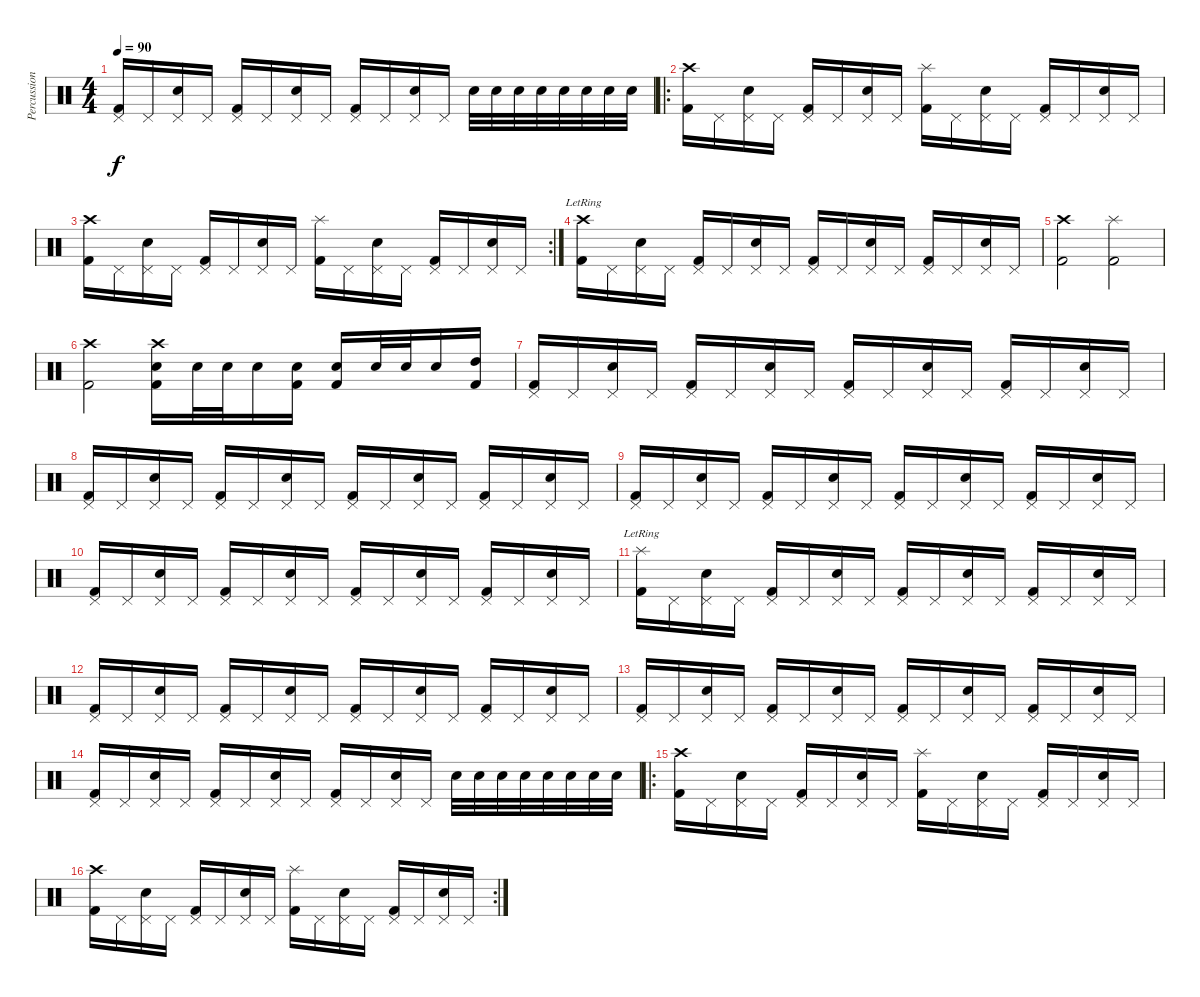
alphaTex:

\track ("Percussion" "Percussion") {instrument percussion}
\staff {score}
\articulation defaults
\ts (4 4)
\tempo 90
\clef neutral
\ks c
("Pedal Hi-Hat (hit)" "Kick (hit) 2").16{dy f} "Pedal Hi-Hat (hit)".16 ("Pedal Hi-Hat (hit)" "Snare (hit) 2").16 "Pedal Hi-Hat (hit)".16 ("Pedal Hi-Hat (hit)" "Kick (hit) 2").16 "Pedal Hi-Hat (hit)".16 ("Pedal Hi-Hat (hit)" "Snare (hit) 2").16 "Pedal Hi-Hat (hit)".16 ("Pedal Hi-Hat (hit)" "Kick (hit) 2").16 "Pedal Hi-Hat (hit)".16 ("Pedal Hi-Hat (hit)" "Snare (hit) 2").16 "Pedal Hi-Hat (hit)".16 "Snare (hit) 2".32 "Snare (hit) 2".32 "Snare (hit) 2".32 "Snare (hit) 2".32 "Snare (hit) 2".32 "Snare (hit) 2".32 "Snare (hit) 2".32 "Snare (hit) 2".32 |
\ro
("Crash high (hit)" "Kick (hit) 2").16 "Pedal Hi-Hat (hit)".16 ("Pedal Hi-Hat (hit)" "Snare (hit) 2").16 "Pedal Hi-Hat (hit)".16 ("Pedal Hi-Hat (hit)" "Kick (hit) 2").16 "Pedal Hi-Hat (hit)".16 ("Pedal Hi-Hat (hit)" "Snare (hit) 2").16 "Pedal Hi-Hat (hit)".16 ("Splash (hit)" "Kick (hit) 2").16 "Pedal Hi-Hat (hit)".16 ("Pedal Hi-Hat (hit)" "Snare (hit) 2").16 "Pedal Hi-Hat (hit)".16 ("Pedal Hi-Hat (hit)" "Kick (hit) 2").16 "Pedal Hi-Hat (hit)".16 ("Pedal Hi-Hat (hit)" "Snare (hit) 2").16 "Pedal Hi-Hat (hit)".16 |
\rc 2
("Crash high (hit)" "Kick (hit) 2").16 "Pedal Hi-Hat (hit)".16 ("Pedal Hi-Hat (hit)" "Snare (hit) 2").16 "Pedal Hi-Hat (hit)".16 ("Pedal Hi-Hat (hit)" "Kick (hit) 2").16 "Pedal Hi-Hat (hit)".16 ("Pedal Hi-Hat (hit)" "Snare (hit) 2").16 "Pedal Hi-Hat (hit)".16 ("Splash (hit)" "Kick (hit) 2").16 "Pedal Hi-Hat (hit)".16 ("Pedal Hi-Hat (hit)" "Snare (hit) 2").16 "Pedal Hi-Hat (hit)".16 ("Pedal Hi-Hat (hit)" "Kick (hit) 2").16 "Pedal Hi-Hat (hit)".16 ("Pedal Hi-Hat (hit)" "Snare (hit) 2").16 "Pedal Hi-Hat (hit)".16 |
("Crash high (hit)"{lr} "Kick (hit) 2").16 "Pedal Hi-Hat (hit)".16 ("Pedal Hi-Hat (hit)" "Snare (hit) 2").16 "Pedal Hi-Hat (hit)".16 ("Pedal Hi-Hat (hit)" "Kick (hit) 2").16 "Pedal Hi-Hat (hit)".16 ("Pedal Hi-Hat (hit)" "Snare (hit) 2").16 "Pedal Hi-Hat (hit)".16 ("Pedal Hi-Hat (hit)" "Kick (hit) 2").16 "Pedal Hi-Hat (hit)".16 ("Pedal Hi-Hat (hit)" "Snare (hit) 2").16 "Pedal Hi-Hat (hit)".16 ("Pedal Hi-Hat (hit)" "Kick (hit) 2").16 "Pedal Hi-Hat (hit)".16 ("Pedal Hi-Hat (hit)" "Snare (hit) 2").16 "Pedal Hi-Hat (hit)".16 |
("Crash high (hit)" "Kick (hit) 2").2 ("Splash (hit)" "Kick (hit) 2").2 |
("Crash high (hit)" "Kick (hit) 2").2 ("Crash high (hit)" "Snare (hit) 2" "Kick (hit) 2").16 "Snare (hit) 2".32 "Snare (hit) 2".32 "Snare (hit) 2".16 ("Snare (hit) 2" "Kick (hit) 2").16 ("Snare (hit) 2" "Kick (hit) 2").16 "Snare (hit) 2".32 "Snare (hit) 2".32 "Snare (hit) 2".16 ("High Tom (hit)" "Kick (hit) 2").16 |
("Pedal Hi-Hat (hit)" "Kick (hit) 2").16 "Pedal Hi-Hat (hit)".16 ("Pedal Hi-Hat (hit)" "Snare (hit) 2").16 "Pedal Hi-Hat (hit)".16 ("Pedal Hi-Hat (hit)" "Kick (hit) 2").16 "Pedal Hi-Hat (hit)".16 ("Pedal Hi-Hat (hit)" "Snare (hit) 2").16 "Pedal Hi-Hat (hit)".16 ("Pedal Hi-Hat (hit)" "Kick (hit) 2").16 "Pedal Hi-Hat (hit)".16 ("Pedal Hi-Hat (hit)" "Snare (hit) 2").16 "Pedal Hi-Hat (hit)".16 ("Pedal Hi-Hat (hit)" "Kick (hit) 2").16 "Pedal Hi-Hat (hit)".16 ("Pedal Hi-Hat (hit)" "Snare (hit) 2").16 "Pedal Hi-Hat (hit)".16 |
("Pedal Hi-Hat (hit)" "Kick (hit) 2").16 "Pedal Hi-Hat (hit)".16 ("Pedal Hi-Hat (hit)" "Snare (hit) 2").16 "Pedal Hi-Hat (hit)".16 ("Pedal Hi-Hat (hit)" "Kick (hit) 2").16 "Pedal Hi-Hat (hit)".16 ("Pedal Hi-Hat (hit)" "Snare (hit) 2").16 "Pedal Hi-Hat (hit)".16 ("Pedal Hi-Hat (hit)" "Kick (hit) 2").16 "Pedal Hi-Hat (hit)".16 ("Pedal Hi-Hat (hit)" "Snare (hit) 2").16 "Pedal Hi-Hat (hit)".16 ("Pedal Hi-Hat (hit)" "Kick (hit) 2").16 "Pedal Hi-Hat (hit)".16 ("Pedal Hi-Hat (hit)" "Snare (hit) 2").16 "Pedal Hi-Hat (hit)".16 |
("Pedal Hi-Hat (hit)" "Kick (hit) 2").16 "Pedal Hi-Hat (hit)".16 ("Pedal Hi-Hat (hit)" "Snare (hit) 2").16 "Pedal Hi-Hat (hit)".16 ("Pedal Hi-Hat (hit)" "Kick (hit) 2").16 "Pedal Hi-Hat (hit)".16 ("Pedal Hi-Hat (hit)" "Snare (hit) 2").16 "Pedal Hi-Hat (hit)".16 ("Pedal Hi-Hat (hit)" "Kick (hit) 2").16 "Pedal Hi-Hat (hit)".16 ("Pedal Hi-Hat (hit)" "Snare (hit) 2").16 "Pedal Hi-Hat (hit)".16 ("Pedal Hi-Hat (hit)" "Kick (hit) 2").16 "Pedal Hi-Hat (hit)".16 ("Pedal Hi-Hat (hit)" "Snare (hit) 2").16 "Pedal Hi-Hat (hit)".16 |
("Pedal Hi-Hat (hit)" "Kick (hit) 2").16 "Pedal Hi-Hat (hit)".16 ("Pedal Hi-Hat (hit)" "Snare (hit) 2").16 "Pedal Hi-Hat (hit)".16 ("Pedal Hi-Hat (hit)" "Kick (hit) 2").16 "Pedal Hi-Hat (hit)".16 ("Pedal Hi-Hat (hit)" "Snare (hit) 2").16 "Pedal Hi-Hat (hit)".16 ("Pedal Hi-Hat (hit)" "Kick (hit) 2").16 "Pedal Hi-Hat (hit)".16 ("Pedal Hi-Hat (hit)" "Snare (hit) 2").16 "Pedal Hi-Hat (hit)".16 ("Pedal Hi-Hat (hit)" "Kick (hit) 2").16 "Pedal Hi-Hat (hit)".16 ("Pedal Hi-Hat (hit)" "Snare (hit) 2").16 "Pedal Hi-Hat (hit)".16 |
("Splash (hit)"{lr} "Kick (hit) 2").16 "Pedal Hi-Hat (hit)".16 ("Pedal Hi-Hat (hit)" "Snare (hit) 2").16 "Pedal Hi-Hat (hit)".16 ("Pedal Hi-Hat (hit)" "Kick (hit) 2").16 "Pedal Hi-Hat (hit)".16 ("Pedal Hi-Hat (hit)" "Snare (hit) 2").16 "Pedal Hi-Hat (hit)".16 ("Pedal Hi-Hat (hit)" "Kick (hit) 2").16 "Pedal Hi-Hat (hit)".16 ("Pedal Hi-Hat (hit)" "Snare (hit) 2").16 "Pedal Hi-Hat (hit)".16 ("Pedal Hi-Hat (hit)" "Kick (hit) 2").16 "Pedal Hi-Hat (hit)".16 ("Pedal Hi-Hat (hit)" "Snare (hit) 2").16 "Pedal Hi-Hat (hit)".16 |
("Pedal Hi-Hat (hit)" "Kick (hit) 2").16 "Pedal Hi-Hat (hit)".16 ("Pedal Hi-Hat (hit)" "Snare (hit) 2").16 "Pedal Hi-Hat (hit)".16 ("Pedal Hi-Hat (hit)" "Kick (hit) 2").16 "Pedal Hi-Hat (hit)".16 ("Pedal Hi-Hat (hit)" "Snare (hit) 2").16 "Pedal Hi-Hat (hit)".16 ("Pedal Hi-Hat (hit)" "Kick (hit) 2").16 "Pedal Hi-Hat (hit)".16 ("Pedal Hi-Hat (hit)" "Snare (hit) 2").16 "Pedal Hi-Hat (hit)".16 ("Pedal Hi-Hat (hit)" "Kick (hit) 2").16 "Pedal Hi-Hat (hit)".16 ("Pedal Hi-Hat (hit)" "Snare (hit) 2").16 "Pedal Hi-Hat (hit)".16 |
("Pedal Hi-Hat (hit)" "Kick (hit) 2").16 "Pedal Hi-Hat (hit)".16 ("Pedal Hi-Hat (hit)" "Snare (hit) 2").16 "Pedal Hi-Hat (hit)".16 ("Pedal Hi-Hat (hit)" "Kick (hit) 2").16 "Pedal Hi-Hat (hit)".16 ("Pedal Hi-Hat (hit)" "Snare (hit) 2").16 "Pedal Hi-Hat (hit)".16 ("Pedal Hi-Hat (hit)" "Kick (hit) 2").16 "Pedal Hi-Hat (hit)".16 ("Pedal Hi-Hat (hit)" "Snare (hit) 2").16 "Pedal Hi-Hat (hit)".16 ("Pedal Hi-Hat (hit)" "Kick (hit) 2").16 "Pedal Hi-Hat (hit)".16 ("Pedal Hi-Hat (hit)" "Snare (hit) 2").16 "Pedal Hi-Hat (hit)".16 |
("Pedal Hi-Hat (hit)" "Kick (hit) 2").16 "Pedal Hi-Hat (hit)".16 ("Pedal Hi-Hat (hit)" "Snare (hit) 2").16 "Pedal Hi-Hat (hit)".16 ("Pedal Hi-Hat (hit)" "Kick (hit) 2").16 "Pedal Hi-Hat (hit)".16 ("Pedal Hi-Hat (hit)" "Snare (hit) 2").16 "Pedal Hi-Hat (hit)".16 ("Pedal Hi-Hat (hit)" "Kick (hit) 2").16 "Pedal Hi-Hat (hit)".16 ("Pedal Hi-Hat (hit)" "Snare (hit) 2").16 "Pedal Hi-Hat (hit)".16 "Snare (hit) 2".32 "Snare (hit) 2".32 "Snare (hit) 2".32 "Snare (hit) 2".32 "Snare (hit) 2".32 "Snare (hit) 2".32 "Snare (hit) 2".32 "Snare (hit) 2".32 |
\ro
("Crash high (hit)" "Kick (hit) 2").16 "Pedal Hi-Hat (hit)".16 ("Pedal Hi-Hat (hit)" "Snare (hit) 2").16 "Pedal Hi-Hat (hit)".16 ("Pedal Hi-Hat (hit)" "Kick (hit) 2").16 "Pedal Hi-Hat (hit)".16 ("Pedal Hi-Hat (hit)" "Snare (hit) 2").16 "Pedal Hi-Hat (hit)".16 ("Splash (hit)" "Kick (hit) 2").16 "Pedal Hi-Hat (hit)".16 ("Pedal Hi-Hat (hit)" "Snare (hit) 2").16 "Pedal Hi-Hat (hit)".16 ("Pedal Hi-Hat (hit)" "Kick (hit) 2").16 "Pedal Hi-Hat (hit)".16 ("Pedal Hi-Hat (hit)" "Snare (hit) 2").16 "Pedal Hi-Hat (hit)".16 |
\rc 2
("Crash high (hit)" "Kick (hit) 2").16 "Pedal Hi-Hat (hit)".16 ("Pedal Hi-Hat (hit)" "Snare (hit) 2").16 "Pedal Hi-Hat (hit)".16 ("Pedal Hi-Hat (hit)" "Kick (hit) 2").16 "Pedal Hi-Hat (hit)".16 ("Pedal Hi-Hat (hit)" "Snare (hit) 2").16 "Pedal Hi-Hat (hit)".16 ("Splash (hit)" "Kick (hit) 2").16 "Pedal Hi-Hat (hit)".16 ("Pedal Hi-Hat (hit)" "Snare (hit) 2").16 "Pedal Hi-Hat (hit)".16 ("Pedal Hi-Hat (hit)" "Kick (hit) 2").16 "Pedal Hi-Hat (hit)".16 ("Pedal Hi-Hat (hit)" "Snare (hit) 2").16 "Pedal Hi-Hat (hit)".16
